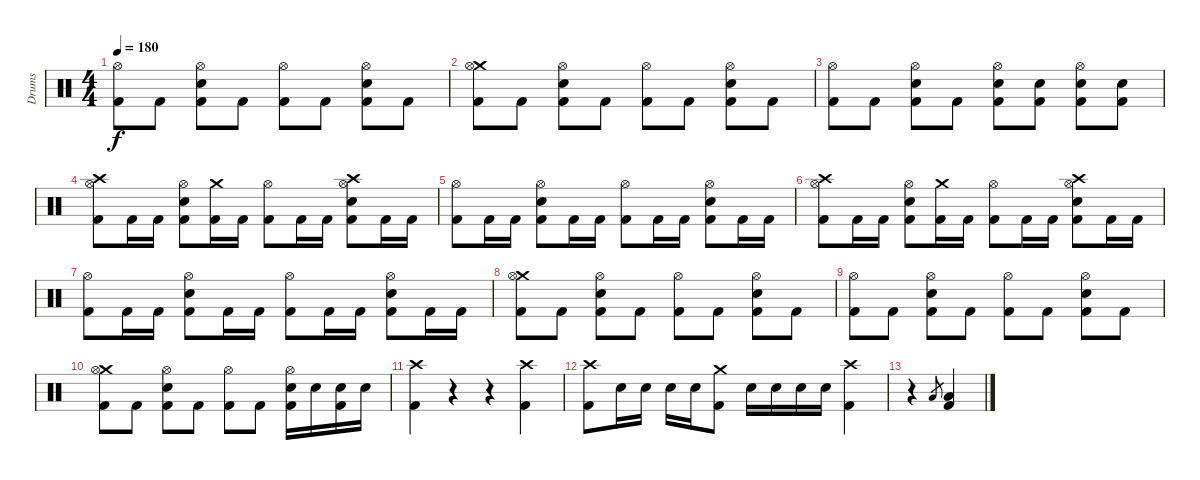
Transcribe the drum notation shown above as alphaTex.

\track ("Drums" "Drums") {instrument percussion}
\staff {score}
\articulation defaults
\ts (4 4)
\tempo 180
\clef neutral
\ks c
("Hi-Hat (open)" "Kick (hit) 2").8{dy f} "Kick (hit) 2".8 ("Hi-Hat (open)" "Snare (hit) 2" "Kick (hit) 2").8 "Kick (hit) 2".8 ("Hi-Hat (open)" "Kick (hit) 2").8 "Kick (hit) 2".8 ("Hi-Hat (open)" "Snare (hit) 2" "Kick (hit) 2").8 "Kick (hit) 2".8 |
("Crash medium (hit)" "Hi-Hat (open)" "Kick (hit) 2").8 "Kick (hit) 2".8 ("Hi-Hat (open)" "Snare (hit) 2" "Kick (hit) 2").8 "Kick (hit) 2".8 ("Hi-Hat (open)" "Kick (hit) 2").8 "Kick (hit) 2".8 ("Hi-Hat (open)" "Snare (hit) 2" "Kick (hit) 2").8 "Kick (hit) 2".8 |
("Hi-Hat (open)" "Kick (hit) 2").8 "Kick (hit) 2".8 ("Hi-Hat (open)" "Snare (hit) 2" "Kick (hit) 2").8 "Kick (hit) 2".8 ("Hi-Hat (open)" "Snare (hit) 2" "Kick (hit) 2").8 ("Snare (hit) 2" "Kick (hit) 2").8 ("Hi-Hat (open)" "Snare (hit) 2" "Kick (hit) 2").8 ("Snare (hit) 2" "Kick (hit) 2").8 |
("Crash high (hit)" "Hi-Hat (open)" "Kick (hit) 2").8 "Kick (hit) 2".16 "Kick (hit) 2".16 ("Hi-Hat (open)" "Snare (hit) 2" "Kick (hit) 2").8 ("Crash medium (hit)" "Kick (hit) 2").16 "Kick (hit) 2".16 ("Hi-Hat (open)" "Kick (hit) 2").8 "Kick (hit) 2".16 "Kick (hit) 2".16 ("Crash high (hit)" "Hi-Hat (open)" "Snare (hit) 2" "Kick (hit) 2").8 "Kick (hit) 2".16 "Kick (hit) 2".16 |
("Hi-Hat (open)" "Kick (hit) 2").8 "Kick (hit) 2".16 "Kick (hit) 2".16 ("Hi-Hat (open)" "Snare (hit) 2" "Kick (hit) 2").8 "Kick (hit) 2".16 "Kick (hit) 2".16 ("Hi-Hat (open)" "Kick (hit) 2").8 "Kick (hit) 2".16 "Kick (hit) 2".16 ("Hi-Hat (open)" "Snare (hit) 2" "Kick (hit) 2").8 "Kick (hit) 2".16 "Kick (hit) 2".16 |
("Crash high (hit)" "Hi-Hat (open)" "Kick (hit) 2").8 "Kick (hit) 2".16 "Kick (hit) 2".16 ("Hi-Hat (open)" "Snare (hit) 2" "Kick (hit) 2").8 ("Crash medium (hit)" "Kick (hit) 2").16 "Kick (hit) 2".16 ("Hi-Hat (open)" "Kick (hit) 2").8 "Kick (hit) 2".16 "Kick (hit) 2".16 ("Crash high (hit)" "Hi-Hat (open)" "Snare (hit) 2" "Kick (hit) 2").8 "Kick (hit) 2".16 "Kick (hit) 2".16 |
("Hi-Hat (open)" "Kick (hit) 2").8 "Kick (hit) 2".16 "Kick (hit) 2".16 ("Hi-Hat (open)" "Snare (hit) 2" "Kick (hit) 2").8 "Kick (hit) 2".16 "Kick (hit) 2".16 ("Hi-Hat (open)" "Kick (hit) 2").8 "Kick (hit) 2".16 "Kick (hit) 2".16 ("Hi-Hat (open)" "Snare (hit) 2" "Kick (hit) 2").8 "Kick (hit) 2".16 "Kick (hit) 2".16 |
("Crash medium (hit)" "Hi-Hat (open)" "Kick (hit) 2").8 "Kick (hit) 2".8 ("Hi-Hat (open)" "Snare (hit) 2" "Kick (hit) 2").8 "Kick (hit) 2".8 ("Hi-Hat (open)" "Kick (hit) 2").8 "Kick (hit) 2".8 ("Hi-Hat (open)" "Snare (hit) 2" "Kick (hit) 2").8 "Kick (hit) 2".8 |
("Hi-Hat (open)" "Kick (hit) 2").8 "Kick (hit) 2".8 ("Hi-Hat (open)" "Snare (hit) 2" "Kick (hit) 2").8 "Kick (hit) 2".8 ("Hi-Hat (open)" "Kick (hit) 2").8 "Kick (hit) 2".8 ("Hi-Hat (open)" "Snare (hit) 2" "Kick (hit) 2").8 "Kick (hit) 2".8 |
("Crash medium (hit)" "Hi-Hat (open)" "Kick (hit) 2").8 "Kick (hit) 2".8 ("Hi-Hat (open)" "Snare (hit) 2" "Kick (hit) 2").8 "Kick (hit) 2".8 ("Hi-Hat (open)" "Kick (hit) 2").8 "Kick (hit) 2".8 ("Hi-Hat (open)" "Snare (hit) 2" "Kick (hit) 2").16 "Snare (hit) 2".16 ("Snare (hit) 2" "Kick (hit) 2").16 "Snare (hit) 2".16 |
("Crash high (hit)" "Kick (hit) 2").4 r.4 r.4 ("Crash high (hit)" "Kick (hit) 2").4 |
("Crash high (hit)" "Kick (hit) 2").8 "Snare (hit) 2".16 "Snare (hit) 2".16 "Snare (hit) 2".16 "Snare (hit) 2".16 ("Crash medium (hit)" "Kick (hit) 2").8 "Snare (hit) 2".16 "Snare (hit) 2".16 "Snare (hit) 2".16 "Snare (hit) 2".16 ("Crash high (hit)" "Kick (hit) 2").4 |
r.4 "Low Floor Tom (hit)".8{gr} ("Low Floor Tom (hit)" "Kick (hit) 2").4
